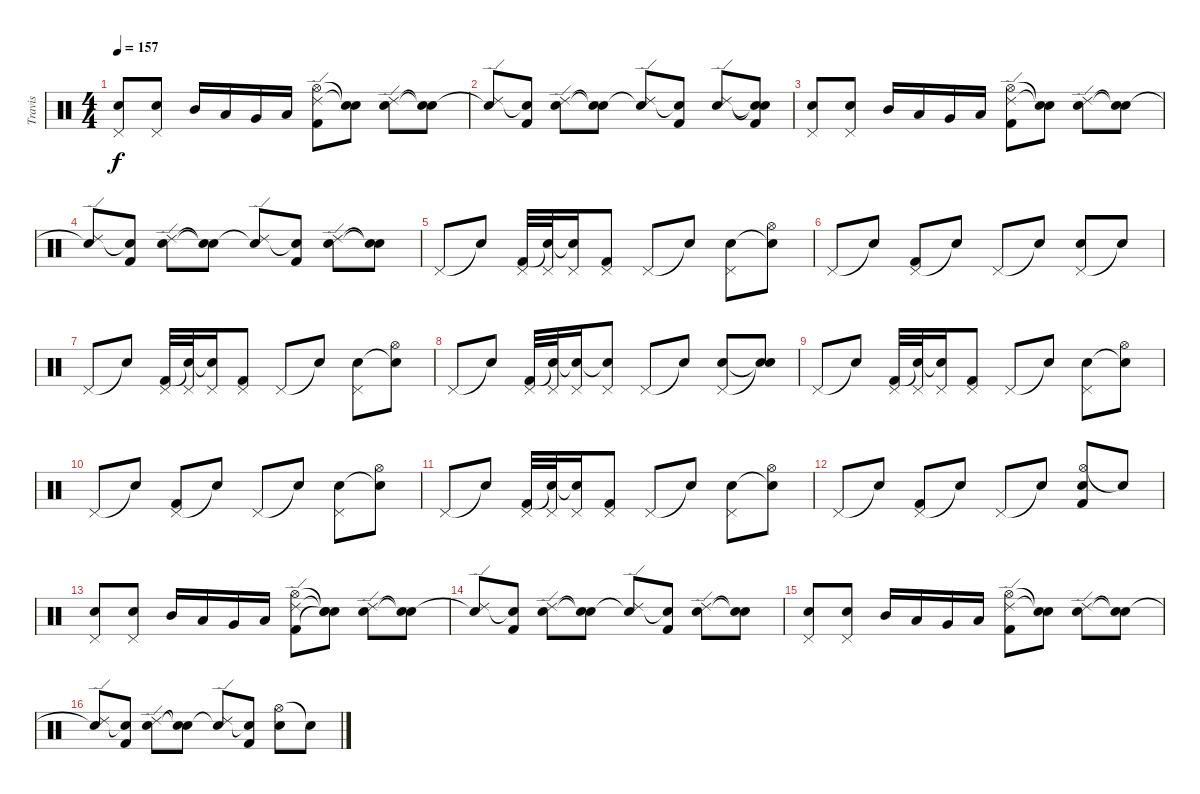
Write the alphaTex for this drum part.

\track ("Travis" "Travis") {instrument percussion}
\staff {score}
\articulation defaults
\ts (4 4)
\tempo 157
\clef neutral
\ks c
("Pedal Hi-Hat (hit)" "Snare (hit) 2").8{dy f} ("Pedal Hi-Hat (hit)" "Snare (hit) 2").8 "Mid Tom (hit)".16 "Low Tom (hit)".16 "Very Low Tom (hit)".16 "Low Floor Tom (hit)".16 ("Hi-Hat (open)" "Ride (edge) 2" "Kick (hit) 2").8 ("Snare (hit)"{t} "Snare (hit)"{t}).8 ("Ride (edge) 2" "Snare (hit) 2").8 ("Snare (hit)"{t} "Snare (hit)"{t}).8 |
("Ride (edge) 2" "Snare (hit)"{t}).8 ("Snare (hit)"{t} "Kick (hit) 2").8 ("Ride (edge) 2" "Snare (hit) 2").8 ("Snare (hit)"{t} "Snare (hit)"{t}).8 ("Ride (edge) 2" "Snare (hit)"{t}).8 ("Snare (hit)"{t} "Kick (hit) 2").8 ("Ride (edge) 2" "Snare (hit) 2").8 ("Snare (hit)"{t} "Snare (hit)"{t} "Kick (hit) 2").8 |
("Pedal Hi-Hat (hit)" "Snare (hit) 2").8 ("Pedal Hi-Hat (hit)" "Snare (hit) 2").8 "Mid Tom (hit)".16 "Low Tom (hit)".16 "Very Low Tom (hit)".16 "Low Floor Tom (hit)".16 ("Ride (edge) 2" "Hi-Hat (open)" "Kick (hit) 2").8 ("Snare (hit)"{t} "Snare (hit)"{t}).8 ("Ride (edge) 2" "Snare (hit) 2").8 ("Snare (hit)"{t} "Snare (hit)"{t}).8 |
("Ride (edge) 2" "Snare (hit)"{t}).8 ("Snare (hit)"{t} "Kick (hit) 2").8 ("Ride (edge) 2" "Snare (hit) 2").8 ("Snare (hit)"{t} "Snare (hit)"{t}).8 ("Ride (edge) 2" "Snare (hit)"{t}).8 ("Snare (hit)"{t} "Kick (hit) 2").8 ("Ride (edge) 2" "Snare (hit) 2").8 ("Snare (hit)"{t} "Snare (hit)"{t}).8 |
"Pedal Hi-Hat (hit)".8 "Snare (hit)"{t}.8 ("Pedal Hi-Hat (hit)" "Kick (hit) 2").32 ("Pedal Hi-Hat (hit)" "Snare (hit)"{t}).32 ("Pedal Hi-Hat (hit)" "Snare (hit)"{t}).16 ("Pedal Hi-Hat (hit)" "Kick (hit) 2").8 "Pedal Hi-Hat (hit)".8 "Snare (hit)"{t}.8 ("Pedal Hi-Hat (hit)" "Snare (hit) 2").8 ("Hi-Hat (open)" "Snare (hit)"{t}).8 |
"Pedal Hi-Hat (hit)".8 "Snare (hit)"{t}.8 ("Pedal Hi-Hat (hit)" "Kick (hit) 2").8 "Snare (hit)"{t}.8 "Pedal Hi-Hat (hit)".8 "Snare (hit)"{t}.8 ("Pedal Hi-Hat (hit)" "Snare (hit) 2").8 "Snare (hit)"{t}.8 |
"Pedal Hi-Hat (hit)".8 "Snare (hit)"{t}.8 ("Pedal Hi-Hat (hit)" "Kick (hit) 2").32 ("Pedal Hi-Hat (hit)" "Snare (hit)"{t}).32 ("Pedal Hi-Hat (hit)" "Snare (hit)"{t}).16 ("Pedal Hi-Hat (hit)" "Kick (hit) 2").8 "Pedal Hi-Hat (hit)".8 "Snare (hit)"{t}.8 ("Pedal Hi-Hat (hit)" "Snare (hit) 2").8 ("Hi-Hat (open)" "Snare (hit)"{t}).8 |
"Pedal Hi-Hat (hit)".8 "Snare (hit)"{t}.8 ("Pedal Hi-Hat (hit)" "Kick (hit) 2").32 ("Pedal Hi-Hat (hit)" "Snare (hit)"{t}).32 ("Pedal Hi-Hat (hit)" "Snare (hit)"{t}).16 ("Pedal Hi-Hat (hit)" "Snare (hit)"{t}).8 "Pedal Hi-Hat (hit)".8 "Snare (hit)"{t}.8 ("Pedal Hi-Hat (hit)" "Snare (hit) 2").8 ("Snare (hit)"{t} "Snare (hit)"{t}).8 |
"Pedal Hi-Hat (hit)".8 "Snare (hit)"{t}.8 ("Pedal Hi-Hat (hit)" "Kick (hit) 2").32 ("Pedal Hi-Hat (hit)" "Snare (hit)"{t}).32 ("Pedal Hi-Hat (hit)" "Snare (hit)"{t}).16 ("Pedal Hi-Hat (hit)" "Kick (hit) 2").8 "Pedal Hi-Hat (hit)".8 "Snare (hit)"{t}.8 ("Pedal Hi-Hat (hit)" "Snare (hit) 2").8 ("Hi-Hat (open)" "Snare (hit)"{t}).8 |
"Pedal Hi-Hat (hit)".8 "Snare (hit)"{t}.8 ("Pedal Hi-Hat (hit)" "Kick (hit) 2").8 "Snare (hit)"{t}.8 "Pedal Hi-Hat (hit)".8 "Snare (hit)"{t}.8 ("Pedal Hi-Hat (hit)" "Snare (hit) 2").8 ("Hi-Hat (open)" "Snare (hit)"{t}).8 |
"Pedal Hi-Hat (hit)".8 "Snare (hit)"{t}.8 ("Pedal Hi-Hat (hit)" "Kick (hit) 2").32 ("Pedal Hi-Hat (hit)" "Snare (hit)"{t}).32 ("Pedal Hi-Hat (hit)" "Snare (hit)"{t}).16 ("Pedal Hi-Hat (hit)" "Kick (hit) 2").8 "Pedal Hi-Hat (hit)".8 "Snare (hit)"{t}.8 ("Pedal Hi-Hat (hit)" "Snare (hit) 2").8 ("Hi-Hat (open)" "Snare (hit)"{t}).8 |
"Pedal Hi-Hat (hit)".8 "Snare (hit)"{t}.8 ("Pedal Hi-Hat (hit)" "Kick (hit) 2").8 "Snare (hit)"{t}.8 "Pedal Hi-Hat (hit)".8 "Snare (hit)"{t}.8 ("Hi-Hat (open)" "Snare (hit) 2" "Kick (hit) 2").8 "Snare (hit)"{t}.8 |
("Pedal Hi-Hat (hit)" "Snare (hit) 2").8 ("Pedal Hi-Hat (hit)" "Snare (hit) 2").8 "Mid Tom (hit)".16 "Low Tom (hit)".16 "Very Low Tom (hit)".16 "Low Floor Tom (hit)".16 ("Hi-Hat (open)" "Ride (edge) 2" "Kick (hit) 2").8 ("Snare (hit)"{t} "Snare (hit)"{t} "Snare (hit)"{t}).8 ("Ride (edge) 2" "Snare (hit) 2").8 ("Snare (hit)"{t} "Snare (hit)"{t}).8 |
("Ride (edge) 2" "Snare (hit)"{t}).8 ("Snare (hit)"{t} "Kick (hit) 2").8 ("Ride (edge) 2" "Snare (hit) 2").8 ("Snare (hit)"{t} "Snare (hit)"{t}).8 ("Ride (edge) 2" "Snare (hit)"{t}).8 ("Snare (hit)"{t} "Kick (hit) 2").8 ("Ride (edge) 2" "Snare (hit) 2").8 ("Snare (hit)"{t} "Snare (hit)"{t}).8 |
("Pedal Hi-Hat (hit)" "Snare (hit) 2").8 ("Pedal Hi-Hat (hit)" "Snare (hit) 2").8 "Mid Tom (hit)".16 "Low Tom (hit)".16 "Very Low Tom (hit)".16 "Low Floor Tom (hit)".16 ("Hi-Hat (open)" "Ride (edge) 2" "Kick (hit) 2").8 ("Snare (hit)"{t} "Snare (hit)"{t}).8 ("Ride (edge) 2" "Snare (hit) 2").8 ("Snare (hit)"{t} "Snare (hit)"{t}).8 |
("Ride (edge) 2" "Snare (hit)"{t}).8 ("Snare (hit)"{t} "Kick (hit) 2").8 ("Ride (edge) 2" "Snare (hit) 2").8 ("Snare (hit)"{t} "Snare (hit)"{t}).8 ("Ride (edge) 2" "Snare (hit)"{t}).8 ("Snare (hit)"{t} "Kick (hit) 2").8 ("Hi-Hat (open)" "Snare (hit) 2").8 "Snare (hit)"{t}.8
